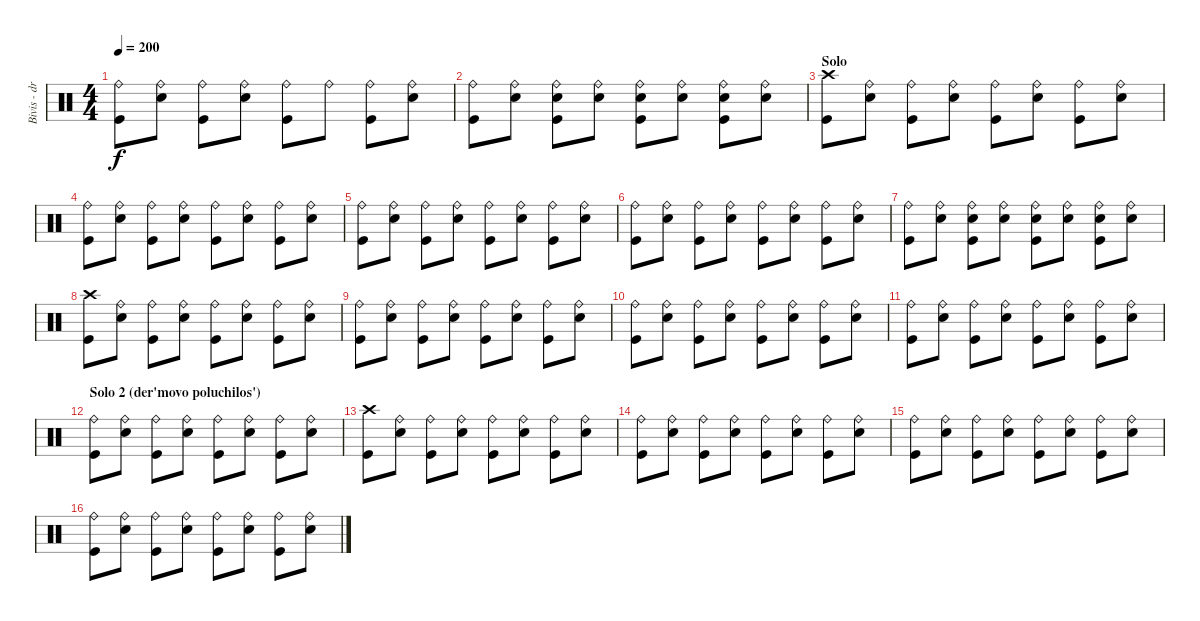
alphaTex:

\track ("Bivis - drums" "Bivis - dr") {instrument percussion}
\staff {score}
\articulation defaults
\ts (4 4)
\tempo 200
\clef neutral
\ks c
("Ride (bell)" "Kick (hit)").8{dy f} ("Ride (bell)" "Electric Snare (hit)").8 ("Ride (bell)" "Kick (hit)").8 ("Ride (bell)" "Electric Snare (hit)").8 ("Ride (bell)" "Kick (hit)").8 "Ride (bell)".8 ("Ride (bell)" "Kick (hit)").8 ("Ride (bell)" "Electric Snare (hit)").8 |
("Ride (bell)" "Kick (hit)").8 ("Ride (bell)" "Electric Snare (hit)").8 ("Ride (bell)" "Electric Snare (hit)" "Kick (hit)").8 ("Ride (bell)" "Electric Snare (hit)").8 ("Ride (bell)" "Electric Snare (hit)" "Kick (hit)").8 ("Ride (bell)" "Electric Snare (hit)").8 ("Ride (bell)" "Electric Snare (hit)" "Kick (hit)").8 ("Ride (bell)" "Electric Snare (hit)").8 |
\section ("" "Solo")
("Crash high (hit)" "Kick (hit)").8 ("Ride (bell)" "Electric Snare (hit)").8 ("Ride (bell)" "Kick (hit)").8 ("Ride (bell)" "Electric Snare (hit)").8 ("Ride (bell)" "Kick (hit)").8 ("Ride (bell)" "Electric Snare (hit)").8 ("Ride (bell)" "Kick (hit)").8 ("Ride (bell)" "Electric Snare (hit)").8 |
("Ride (bell)" "Kick (hit)").8 ("Ride (bell)" "Electric Snare (hit)").8 ("Ride (bell)" "Kick (hit)").8 ("Ride (bell)" "Electric Snare (hit)").8 ("Ride (bell)" "Kick (hit)").8 ("Ride (bell)" "Electric Snare (hit)").8 ("Ride (bell)" "Kick (hit)").8 ("Ride (bell)" "Electric Snare (hit)").8 |
("Ride (bell)" "Kick (hit)").8 ("Ride (bell)" "Electric Snare (hit)").8 ("Ride (bell)" "Kick (hit)").8 ("Ride (bell)" "Electric Snare (hit)").8 ("Ride (bell)" "Kick (hit)").8 ("Ride (bell)" "Electric Snare (hit)").8 ("Ride (bell)" "Kick (hit)").8 ("Ride (bell)" "Electric Snare (hit)").8 |
("Ride (bell)" "Kick (hit)").8 ("Ride (bell)" "Electric Snare (hit)").8 ("Ride (bell)" "Kick (hit)").8 ("Ride (bell)" "Electric Snare (hit)").8 ("Ride (bell)" "Kick (hit)").8 ("Ride (bell)" "Electric Snare (hit)").8 ("Ride (bell)" "Kick (hit)").8 ("Ride (bell)" "Electric Snare (hit)").8 |
("Ride (bell)" "Kick (hit)").8 ("Ride (bell)" "Electric Snare (hit)").8 ("Ride (bell)" "Electric Snare (hit)" "Kick (hit)").8 ("Ride (bell)" "Electric Snare (hit)").8 ("Ride (bell)" "Electric Snare (hit)" "Kick (hit)").8 ("Ride (bell)" "Electric Snare (hit)").8 ("Ride (bell)" "Electric Snare (hit)" "Kick (hit)").8 ("Ride (bell)" "Electric Snare (hit)").8 |
("Crash high (hit)" "Kick (hit)").8 ("Ride (bell)" "Electric Snare (hit)").8 ("Ride (bell)" "Kick (hit)").8 ("Ride (bell)" "Electric Snare (hit)").8 ("Ride (bell)" "Kick (hit)").8 ("Ride (bell)" "Electric Snare (hit)").8 ("Ride (bell)" "Kick (hit)").8 ("Ride (bell)" "Electric Snare (hit)").8 |
("Ride (bell)" "Kick (hit)").8 ("Ride (bell)" "Electric Snare (hit)").8 ("Ride (bell)" "Kick (hit)").8 ("Ride (bell)" "Electric Snare (hit)").8 ("Ride (bell)" "Kick (hit)").8 ("Ride (bell)" "Electric Snare (hit)").8 ("Ride (bell)" "Kick (hit)").8 ("Ride (bell)" "Electric Snare (hit)").8 |
("Ride (bell)" "Kick (hit)").8 ("Ride (bell)" "Electric Snare (hit)").8 ("Ride (bell)" "Kick (hit)").8 ("Ride (bell)" "Electric Snare (hit)").8 ("Ride (bell)" "Kick (hit)").8 ("Ride (bell)" "Electric Snare (hit)").8 ("Ride (bell)" "Kick (hit)").8 ("Ride (bell)" "Electric Snare (hit)").8 |
("Ride (bell)" "Kick (hit)").8 ("Ride (bell)" "Electric Snare (hit)").8 ("Ride (bell)" "Kick (hit)").8 ("Ride (bell)" "Electric Snare (hit)").8 ("Ride (bell)" "Kick (hit)").8 ("Ride (bell)" "Electric Snare (hit)").8 ("Ride (bell)" "Kick (hit)").8 ("Ride (bell)" "Electric Snare (hit)").8 |
\section ("" "Solo 2 (der'movo poluchilos')")
("Ride (bell)" "Kick (hit)").8 ("Ride (bell)" "Electric Snare (hit)").8 ("Ride (bell)" "Kick (hit)").8 ("Ride (bell)" "Electric Snare (hit)").8 ("Ride (bell)" "Kick (hit)").8 ("Ride (bell)" "Electric Snare (hit)").8 ("Ride (bell)" "Kick (hit)").8 ("Ride (bell)" "Electric Snare (hit)").8 |
("Crash high (hit)" "Kick (hit)").8 ("Ride (bell)" "Electric Snare (hit)").8 ("Ride (bell)" "Kick (hit)").8 ("Ride (bell)" "Electric Snare (hit)").8 ("Ride (bell)" "Kick (hit)").8 ("Ride (bell)" "Electric Snare (hit)").8 ("Ride (bell)" "Kick (hit)").8 ("Ride (bell)" "Electric Snare (hit)").8 |
("Ride (bell)" "Kick (hit)").8 ("Ride (bell)" "Electric Snare (hit)").8 ("Ride (bell)" "Kick (hit)").8 ("Ride (bell)" "Electric Snare (hit)").8 ("Ride (bell)" "Kick (hit)").8 ("Ride (bell)" "Electric Snare (hit)").8 ("Ride (bell)" "Kick (hit)").8 ("Ride (bell)" "Electric Snare (hit)").8 |
("Ride (bell)" "Kick (hit)").8 ("Ride (bell)" "Electric Snare (hit)").8 ("Ride (bell)" "Kick (hit)").8 ("Ride (bell)" "Electric Snare (hit)").8 ("Ride (bell)" "Kick (hit)").8 ("Ride (bell)" "Electric Snare (hit)").8 ("Ride (bell)" "Kick (hit)").8 ("Ride (bell)" "Electric Snare (hit)").8 |
("Ride (bell)" "Kick (hit)").8 ("Ride (bell)" "Electric Snare (hit)").8 ("Ride (bell)" "Kick (hit)").8 ("Ride (bell)" "Electric Snare (hit)").8 ("Ride (bell)" "Kick (hit)").8 ("Ride (bell)" "Electric Snare (hit)").8 ("Ride (bell)" "Kick (hit)").8 ("Ride (bell)" "Electric Snare (hit)").8
